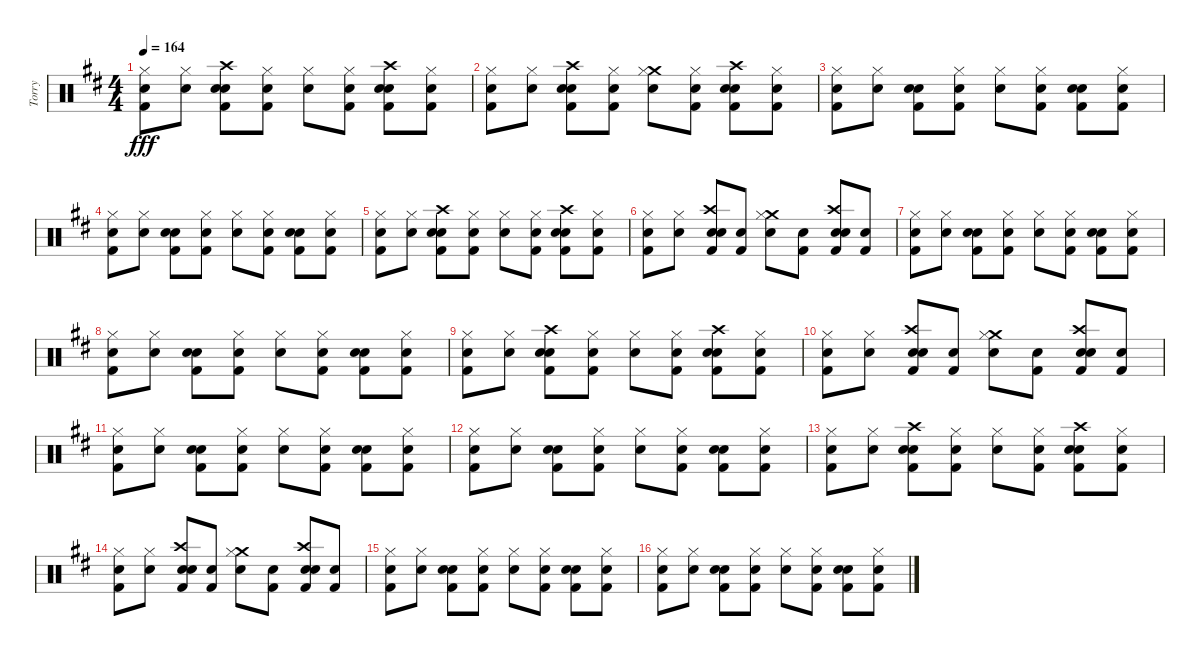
\track ("Torry" "Torry") {instrument percussion}
\staff {score}
\articulation defaults
\ts (4 4)
\tempo 164
\clef neutral
\ks d
("Hi-Hat (closed)" "Snare (hit) 2" "Kick (hit) 2").8{dy fff} ("Hi-Hat (closed)" "Snare (hit) 2").8 ("Crash high (hit)" "Electric Snare (hit)" "Snare (hit) 2" "Kick (hit) 2").8 ("Hi-Hat (closed)" "Snare (hit) 2" "Kick (hit) 2").8 ("Hi-Hat (closed)" "Snare (hit) 2").8 ("Hi-Hat (closed)" "Snare (hit) 2" "Kick (hit) 2").8 ("Crash high (hit)" "Electric Snare (hit)" "Snare (hit) 2" "Kick (hit) 2").8 ("Hi-Hat (closed)" "Snare (hit) 2" "Kick (hit) 2").8 |
("Hi-Hat (closed)" "Snare (hit) 2" "Kick (hit) 2").8 ("Hi-Hat (closed)" "Snare (hit) 2").8 ("Crash high (hit)" "Electric Snare (hit)" "Snare (hit) 2" "Kick (hit) 2").8 ("Hi-Hat (closed)" "Snare (hit) 2" "Kick (hit) 2").8 ("Crash medium (hit)" "Hi-Hat (closed)" "Snare (hit) 2").8 ("Hi-Hat (closed)" "Snare (hit) 2" "Kick (hit) 2").8 ("Crash high (hit)" "Electric Snare (hit)" "Snare (hit) 2" "Kick (hit) 2").8 ("Hi-Hat (closed)" "Snare (hit) 2" "Kick (hit) 2").8 |
("Hi-Hat (closed)" "Snare (hit) 2" "Kick (hit) 2").8 ("Hi-Hat (closed)" "Snare (hit) 2").8 ("Electric Snare (hit)" "Snare (hit) 2" "Kick (hit) 2").8 ("Hi-Hat (closed)" "Snare (hit) 2" "Kick (hit) 2").8 ("Hi-Hat (closed)" "Snare (hit) 2").8 ("Hi-Hat (closed)" "Snare (hit) 2" "Kick (hit) 2").8 ("Electric Snare (hit)" "Snare (hit) 2" "Kick (hit) 2").8 ("Hi-Hat (closed)" "Snare (hit) 2" "Kick (hit) 2").8 |
("Hi-Hat (closed)" "Snare (hit) 2" "Kick (hit) 2").8 ("Hi-Hat (closed)" "Snare (hit) 2").8 ("Electric Snare (hit)" "Snare (hit) 2" "Kick (hit) 2").8 ("Hi-Hat (closed)" "Snare (hit) 2" "Kick (hit) 2").8 ("Hi-Hat (closed)" "Snare (hit) 2").8 ("Hi-Hat (closed)" "Snare (hit) 2" "Kick (hit) 2").8 ("Electric Snare (hit)" "Snare (hit) 2" "Kick (hit) 2").8 ("Hi-Hat (closed)" "Snare (hit) 2" "Kick (hit) 2").8 |
("Hi-Hat (closed)" "Snare (hit) 2" "Kick (hit) 2").8 ("Hi-Hat (closed)" "Snare (hit) 2").8 ("Crash high (hit)" "Electric Snare (hit)" "Snare (hit) 2" "Kick (hit) 2").8 ("Hi-Hat (closed)" "Snare (hit) 2" "Kick (hit) 2").8 ("Hi-Hat (closed)" "Snare (hit) 2").8 ("Hi-Hat (closed)" "Snare (hit) 2" "Kick (hit) 2").8 ("Crash high (hit)" "Electric Snare (hit)" "Snare (hit) 2" "Kick (hit) 2").8 ("Hi-Hat (closed)" "Snare (hit) 2" "Kick (hit) 2").8 |
("Hi-Hat (closed)" "Snare (hit) 2" "Kick (hit) 2").8 ("Hi-Hat (closed)" "Snare (hit) 2").8 ("Crash high (hit)" "Electric Snare (hit)" "Snare (hit) 2" "Kick (hit) 2").8 ("Electric Snare (hit)" "Kick (hit) 2").8 ("Crash medium (hit)" "Hi-Hat (closed)" "Snare (hit) 2").8 ("Electric Snare (hit)" "Kick (hit) 2").8 ("Crash high (hit)" "Electric Snare (hit)" "Snare (hit) 2" "Kick (hit) 2").8 ("Electric Snare (hit)" "Kick (hit) 2").8 |
("Hi-Hat (closed)" "Snare (hit) 2" "Kick (hit) 2").8 ("Hi-Hat (closed)" "Snare (hit) 2").8 ("Electric Snare (hit)" "Snare (hit) 2" "Kick (hit) 2").8 ("Hi-Hat (closed)" "Snare (hit) 2" "Kick (hit) 2").8 ("Hi-Hat (closed)" "Snare (hit) 2").8 ("Hi-Hat (closed)" "Snare (hit) 2" "Kick (hit) 2").8 ("Electric Snare (hit)" "Snare (hit) 2" "Kick (hit) 2").8 ("Hi-Hat (closed)" "Snare (hit) 2" "Kick (hit) 2").8 |
("Hi-Hat (closed)" "Snare (hit) 2" "Kick (hit) 2").8 ("Hi-Hat (closed)" "Snare (hit) 2").8 ("Electric Snare (hit)" "Snare (hit) 2" "Kick (hit) 2").8 ("Hi-Hat (closed)" "Snare (hit) 2" "Kick (hit) 2").8 ("Hi-Hat (closed)" "Snare (hit) 2").8 ("Hi-Hat (closed)" "Snare (hit) 2" "Kick (hit) 2").8 ("Electric Snare (hit)" "Snare (hit) 2" "Kick (hit) 2").8 ("Hi-Hat (closed)" "Snare (hit) 2" "Kick (hit) 2").8 |
("Hi-Hat (closed)" "Snare (hit) 2" "Kick (hit) 2").8 ("Hi-Hat (closed)" "Snare (hit) 2").8 ("Crash high (hit)" "Electric Snare (hit)" "Snare (hit) 2" "Kick (hit) 2").8 ("Hi-Hat (closed)" "Snare (hit) 2" "Kick (hit) 2").8 ("Hi-Hat (closed)" "Snare (hit) 2").8 ("Hi-Hat (closed)" "Snare (hit) 2" "Kick (hit) 2").8 ("Crash high (hit)" "Electric Snare (hit)" "Snare (hit) 2" "Kick (hit) 2").8 ("Hi-Hat (closed)" "Snare (hit) 2" "Kick (hit) 2").8 |
("Hi-Hat (closed)" "Snare (hit) 2" "Kick (hit) 2").8 ("Hi-Hat (closed)" "Snare (hit) 2").8 ("Crash high (hit)" "Electric Snare (hit)" "Snare (hit) 2" "Kick (hit) 2").8 ("Electric Snare (hit)" "Kick (hit) 2").8 ("Crash medium (hit)" "Hi-Hat (closed)" "Snare (hit) 2").8 ("Electric Snare (hit)" "Kick (hit) 2").8 ("Crash high (hit)" "Electric Snare (hit)" "Snare (hit) 2" "Kick (hit) 2").8 ("Electric Snare (hit)" "Kick (hit) 2").8 |
("Hi-Hat (closed)" "Snare (hit) 2" "Kick (hit) 2").8 ("Hi-Hat (closed)" "Snare (hit) 2").8 ("Electric Snare (hit)" "Snare (hit) 2" "Kick (hit) 2").8 ("Hi-Hat (closed)" "Snare (hit) 2" "Kick (hit) 2").8 ("Hi-Hat (closed)" "Snare (hit) 2").8 ("Hi-Hat (closed)" "Snare (hit) 2" "Kick (hit) 2").8 ("Electric Snare (hit)" "Snare (hit) 2" "Kick (hit) 2").8 ("Hi-Hat (closed)" "Snare (hit) 2" "Kick (hit) 2").8 |
("Hi-Hat (closed)" "Snare (hit) 2" "Kick (hit) 2").8 ("Hi-Hat (closed)" "Snare (hit) 2").8 ("Electric Snare (hit)" "Snare (hit) 2" "Kick (hit) 2").8 ("Hi-Hat (closed)" "Snare (hit) 2" "Kick (hit) 2").8 ("Hi-Hat (closed)" "Snare (hit) 2").8 ("Hi-Hat (closed)" "Snare (hit) 2" "Kick (hit) 2").8 ("Electric Snare (hit)" "Snare (hit) 2" "Kick (hit) 2").8 ("Hi-Hat (closed)" "Snare (hit) 2" "Kick (hit) 2").8 |
("Hi-Hat (closed)" "Snare (hit) 2" "Kick (hit) 2").8 ("Hi-Hat (closed)" "Snare (hit) 2").8 ("Crash high (hit)" "Electric Snare (hit)" "Snare (hit) 2" "Kick (hit) 2").8 ("Hi-Hat (closed)" "Snare (hit) 2" "Kick (hit) 2").8 ("Hi-Hat (closed)" "Snare (hit) 2").8 ("Hi-Hat (closed)" "Snare (hit) 2" "Kick (hit) 2").8 ("Crash high (hit)" "Electric Snare (hit)" "Snare (hit) 2" "Kick (hit) 2").8 ("Hi-Hat (closed)" "Snare (hit) 2" "Kick (hit) 2").8 |
("Hi-Hat (closed)" "Snare (hit) 2" "Kick (hit) 2").8 ("Hi-Hat (closed)" "Snare (hit) 2").8 ("Crash high (hit)" "Electric Snare (hit)" "Snare (hit) 2" "Kick (hit) 2").8 ("Electric Snare (hit)" "Kick (hit) 2").8 ("Crash medium (hit)" "Hi-Hat (closed)" "Snare (hit) 2").8 ("Electric Snare (hit)" "Kick (hit) 2").8 ("Crash high (hit)" "Electric Snare (hit)" "Snare (hit) 2" "Kick (hit) 2").8 ("Electric Snare (hit)" "Kick (hit) 2").8 |
("Hi-Hat (closed)" "Snare (hit) 2" "Kick (hit) 2").8 ("Hi-Hat (closed)" "Snare (hit) 2").8 ("Electric Snare (hit)" "Snare (hit) 2" "Kick (hit) 2").8 ("Hi-Hat (closed)" "Snare (hit) 2" "Kick (hit) 2").8 ("Hi-Hat (closed)" "Snare (hit) 2").8 ("Hi-Hat (closed)" "Snare (hit) 2" "Kick (hit) 2").8 ("Electric Snare (hit)" "Snare (hit) 2" "Kick (hit) 2").8 ("Hi-Hat (closed)" "Snare (hit) 2" "Kick (hit) 2").8 |
("Hi-Hat (closed)" "Snare (hit) 2" "Kick (hit) 2").8 ("Hi-Hat (closed)" "Snare (hit) 2").8 ("Electric Snare (hit)" "Snare (hit) 2" "Kick (hit) 2").8 ("Hi-Hat (closed)" "Snare (hit) 2" "Kick (hit) 2").8 ("Hi-Hat (closed)" "Snare (hit) 2").8 ("Hi-Hat (closed)" "Snare (hit) 2" "Kick (hit) 2").8 ("Electric Snare (hit)" "Snare (hit) 2" "Kick (hit) 2").8 ("Hi-Hat (closed)" "Snare (hit) 2" "Kick (hit) 2").8
